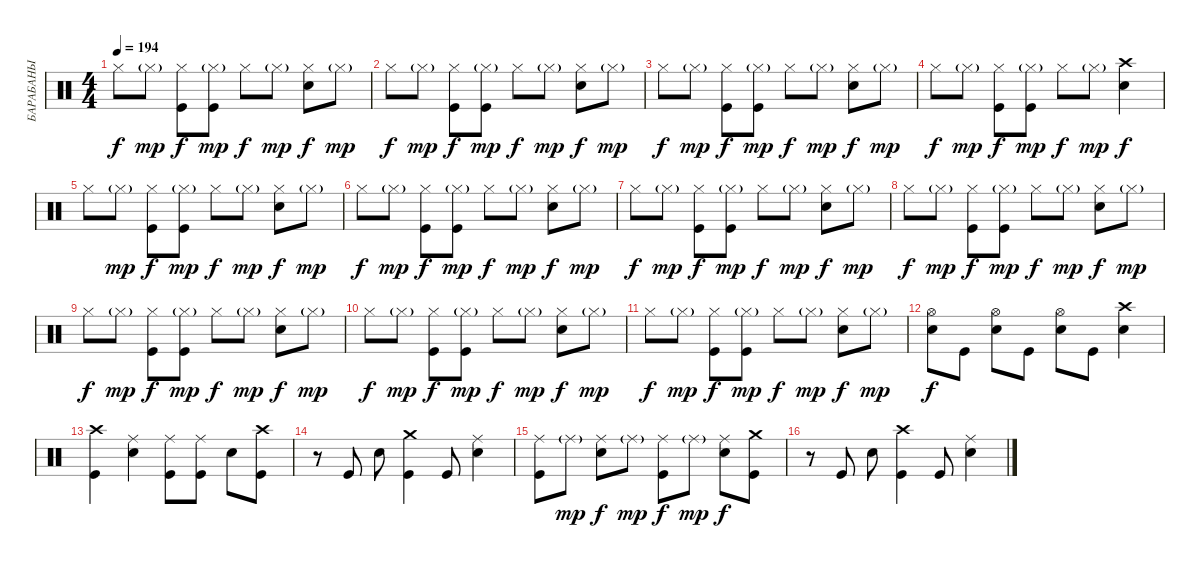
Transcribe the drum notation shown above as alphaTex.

\track ("БАРАБАНЫ" "БАРАБАНЫ") {instrument percussion}
\staff {score}
\articulation defaults
\ts (4 4)
\tempo 194
\clef neutral
\ks c "Hi-Hat (closed)".8{dy f} "Hi-Hat (closed)"{g}.8{dy mp}
("Hi-Hat (closed)" "Kick (hit)").8{dy f} ("Hi-Hat (closed)"{g} "Kick (hit)").8{dy mp} "Hi-Hat (closed)".8{dy f} "Hi-Hat (closed)"{g}.8{dy mp} ("Hi-Hat (closed)" "Electric Snare (hit)").8{dy f} "Hi-Hat (closed)"{g}.8{dy mp} |
"Hi-Hat (closed)".8{dy f} "Hi-Hat (closed)"{g}.8{dy mp} ("Hi-Hat (closed)" "Kick (hit)").8{dy f} ("Hi-Hat (closed)"{g} "Kick (hit)").8{dy mp} "Hi-Hat (closed)".8{dy f} "Hi-Hat (closed)"{g}.8{dy mp} ("Hi-Hat (closed)" "Electric Snare (hit)").8{dy f} "Hi-Hat (closed)"{g}.8{dy mp} |
"Hi-Hat (closed)".8{dy f} "Hi-Hat (closed)"{g}.8{dy mp} ("Hi-Hat (closed)" "Kick (hit)").8{dy f} ("Hi-Hat (closed)"{g} "Kick (hit)").8{dy mp} "Hi-Hat (closed)".8{dy f} "Hi-Hat (closed)"{g}.8{dy mp} ("Hi-Hat (closed)" "Electric Snare (hit)").8{dy f} "Hi-Hat (closed)"{g}.8{dy mp} |
"Hi-Hat (closed)".8{dy f} "Hi-Hat (closed)"{g}.8{dy mp} ("Hi-Hat (closed)" "Kick (hit)").8{dy f} ("Hi-Hat (closed)"{g} "Kick (hit)").8{dy mp} "Hi-Hat (closed)".8{dy f} "Hi-Hat (closed)"{g}.8{dy mp} ("Crash high (hit)" "Electric Snare (hit)").4{dy f} |
"Hi-Hat (closed)".8 "Hi-Hat (closed)"{g}.8{dy mp} ("Hi-Hat (closed)" "Kick (hit)").8{dy f} ("Hi-Hat (closed)"{g} "Kick (hit)").8{dy mp} "Hi-Hat (closed)".8{dy f} "Hi-Hat (closed)"{g}.8{dy mp} ("Hi-Hat (closed)" "Electric Snare (hit)").8{dy f} "Hi-Hat (closed)"{g}.8{dy mp} |
"Hi-Hat (closed)".8{dy f} "Hi-Hat (closed)"{g}.8{dy mp} ("Hi-Hat (closed)" "Kick (hit)").8{dy f} ("Hi-Hat (closed)"{g} "Kick (hit)").8{dy mp} "Hi-Hat (closed)".8{dy f} "Hi-Hat (closed)"{g}.8{dy mp} ("Hi-Hat (closed)" "Electric Snare (hit)").8{dy f} "Hi-Hat (closed)"{g}.8{dy mp} |
"Hi-Hat (closed)".8{dy f} "Hi-Hat (closed)"{g}.8{dy mp} ("Hi-Hat (closed)" "Kick (hit)").8{dy f} ("Hi-Hat (closed)"{g} "Kick (hit)").8{dy mp} "Hi-Hat (closed)".8{dy f} "Hi-Hat (closed)"{g}.8{dy mp} ("Hi-Hat (closed)" "Electric Snare (hit)").8{dy f} "Hi-Hat (closed)"{g}.8{dy mp} |
"Hi-Hat (closed)".8{dy f} "Hi-Hat (closed)"{g}.8{dy mp} ("Hi-Hat (closed)" "Kick (hit)").8{dy f} ("Hi-Hat (closed)"{g} "Kick (hit)").8{dy mp} "Hi-Hat (closed)".8{dy f} "Hi-Hat (closed)"{g}.8{dy mp} ("Hi-Hat (closed)" "Electric Snare (hit)").8{dy f} "Hi-Hat (closed)"{g}.8{dy mp} |
"Hi-Hat (closed)".8{dy f} "Hi-Hat (closed)"{g}.8{dy mp} ("Hi-Hat (closed)" "Kick (hit)").8{dy f} ("Hi-Hat (closed)"{g} "Kick (hit)").8{dy mp} "Hi-Hat (closed)".8{dy f} "Hi-Hat (closed)"{g}.8{dy mp} ("Hi-Hat (closed)" "Electric Snare (hit)").8{dy f} "Hi-Hat (closed)"{g}.8{dy mp} |
"Hi-Hat (closed)".8{dy f} "Hi-Hat (closed)"{g}.8{dy mp} ("Hi-Hat (closed)" "Kick (hit)").8{dy f} ("Hi-Hat (closed)"{g} "Kick (hit)").8{dy mp} "Hi-Hat (closed)".8{dy f} "Hi-Hat (closed)"{g}.8{dy mp} ("Hi-Hat (closed)" "Electric Snare (hit)").8{dy f} "Hi-Hat (closed)"{g}.8{dy mp} |
"Hi-Hat (closed)".8{dy f} "Hi-Hat (closed)"{g}.8{dy mp} ("Hi-Hat (closed)" "Kick (hit)").8{dy f} ("Hi-Hat (closed)"{g} "Kick (hit)").8{dy mp} "Hi-Hat (closed)".8{dy f} "Hi-Hat (closed)"{g}.8{dy mp} ("Hi-Hat (closed)" "Electric Snare (hit)").8{dy f} "Hi-Hat (closed)"{g}.8{dy mp} |
("Hi-Hat (open)" "Electric Snare (hit)").8{dy f} "Kick (hit)".8 ("Hi-Hat (open)" "Electric Snare (hit)").8 "Kick (hit)".8 ("Hi-Hat (open)" "Electric Snare (hit)").8 "Kick (hit)".8 ("Crash high (hit)" "Electric Snare (hit)").4 |
("Crash high (hit)" "Kick (hit)").4 ("Ride (middle)" "Electric Snare (hit)").4 ("Ride (middle)" "Kick (hit)").8 ("Ride (middle)" "Kick (hit)").8 "Electric Snare (hit)".8 ("Crash high (hit)" "Kick (hit)").8 |
r.8 "Kick (hit)".8 "Electric Snare (hit)".8 ("Crash medium (hit)" "Kick (hit)").4 "Kick (hit)".8 ("Ride (middle)" "Electric Snare (hit)").4 |
("Ride (middle)" "Kick (hit)").8 "Ride (middle)"{g}.8{dy mp} ("Ride (middle)" "Electric Snare (hit)").8{dy f} "Ride (middle)"{g}.8{dy mp} ("Ride (middle)" "Kick (hit)").8{dy f} "Ride (middle)"{g}.8{dy mp} ("Ride (middle)" "Electric Snare (hit)").8{dy f} ("Crash medium (hit)" "Kick (hit)").8 |
r.8 "Kick (hit)".8 "Electric Snare (hit)".8 ("Crash high (hit)" "Kick (hit)").4 "Kick (hit)".8 ("Ride (middle)" "Electric Snare (hit)").4
